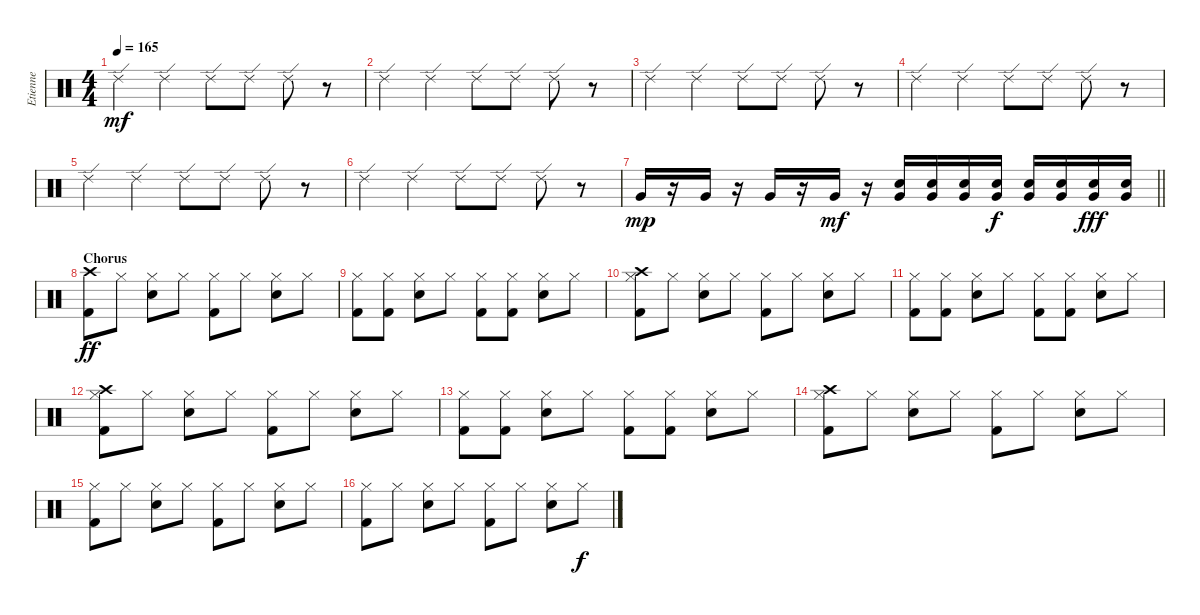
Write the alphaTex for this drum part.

\track ("Etienne" "Etienne") {instrument percussion}
\staff {score}
\articulation defaults
\ts (4 4)
\tempo 165
\clef neutral
\ks c "Ride (edge) 2".4{dy mf} "Ride (edge) 2".4 "Ride (edge) 2".8 "Ride (edge) 2".8 "Ride (edge) 2".8
r.8 |
"Ride (edge) 2".4 "Ride (edge) 2".4 "Ride (edge) 2".8 "Ride (edge) 2".8 "Ride (edge) 2".8 r.8 |
"Ride (edge) 2".4 "Ride (edge) 2".4 "Ride (edge) 2".8 "Ride (edge) 2".8 "Ride (edge) 2".8 r.8 |
"Ride (edge) 2".4 "Ride (edge) 2".4 "Ride (edge) 2".8 "Ride (edge) 2".8 "Ride (edge) 2".8 r.8 |
"Ride (edge) 2".4 "Ride (edge) 2".4 "Ride (edge) 2".8 "Ride (edge) 2".8 "Ride (edge) 2".8 r.8 |
"Ride (edge) 2".4 "Ride (edge) 2".4 "Ride (edge) 2".8 "Ride (edge) 2".8 "Ride (edge) 2".8 r.8 |
\barLineRight lightlight "Very Low Tom (hit)".16{dy mp}
r.16 "Very Low Tom (hit)".16 r.16 "Very Low Tom (hit)".16 r.16 "Very Low Tom (hit)".16{dy mf} r.16 ("Very Low Tom (hit)" "Electric Snare (hit)").16 ("Very Low Tom (hit)" "Electric Snare (hit)").16 ("Very Low Tom (hit)" "Electric Snare (hit)").16 ("Very Low Tom (hit)" "Electric Snare (hit)").16{dy f} ("Very Low Tom (hit)" "Electric Snare (hit)").16 ("Very Low Tom (hit)" "Electric Snare (hit)").16 ("Very Low Tom (hit)" "Electric Snare (hit)").16{dy fff} ("Very Low Tom (hit)" "Electric Snare (hit)").16 |
\section ("" "Chorus")
("Crash high (hit)" "Kick (hit) 2").8{dy ff} "Hi-Hat (closed)".8 ("Hi-Hat (closed)" "Electric Snare (hit)").8 "Hi-Hat (closed)".8 ("Hi-Hat (closed)" "Kick (hit) 2").8 "Hi-Hat (closed)".8 ("Hi-Hat (closed)" "Electric Snare (hit)").8 "Hi-Hat (closed)".8 |
("Hi-Hat (closed)" "Kick (hit) 2").8 ("Hi-Hat (closed)" "Kick (hit) 2").8 ("Hi-Hat (closed)" "Electric Snare (hit)").8 "Hi-Hat (closed)".8 ("Hi-Hat (closed)" "Kick (hit) 2").8 ("Hi-Hat (closed)" "Kick (hit) 2").8 ("Hi-Hat (closed)" "Electric Snare (hit)").8 "Hi-Hat (closed)".8 |
("Crash high (hit)" "Hi-Hat (closed)" "Kick (hit) 2").8 "Hi-Hat (closed)".8 ("Hi-Hat (closed)" "Electric Snare (hit)").8 "Hi-Hat (closed)".8 ("Hi-Hat (closed)" "Kick (hit) 2").8 "Hi-Hat (closed)".8 ("Hi-Hat (closed)" "Electric Snare (hit)").8 "Hi-Hat (closed)".8 |
("Hi-Hat (closed)" "Kick (hit) 2").8 ("Hi-Hat (closed)" "Kick (hit) 2").8 ("Hi-Hat (closed)" "Electric Snare (hit)").8 "Hi-Hat (closed)".8 ("Hi-Hat (closed)" "Kick (hit) 2").8 ("Hi-Hat (closed)" "Kick (hit) 2").8 ("Hi-Hat (closed)" "Electric Snare (hit)").8 "Hi-Hat (closed)".8 |
("Crash high (hit)" "Hi-Hat (closed)" "Kick (hit) 2").8 "Hi-Hat (closed)".8 ("Hi-Hat (closed)" "Electric Snare (hit)").8 "Hi-Hat (closed)".8 ("Hi-Hat (closed)" "Kick (hit) 2").8 "Hi-Hat (closed)".8 ("Hi-Hat (closed)" "Electric Snare (hit)").8 "Hi-Hat (closed)".8 |
("Hi-Hat (closed)" "Kick (hit) 2").8 ("Hi-Hat (closed)" "Kick (hit) 2").8 ("Hi-Hat (closed)" "Electric Snare (hit)").8 "Hi-Hat (closed)".8 ("Hi-Hat (closed)" "Kick (hit) 2").8 ("Hi-Hat (closed)" "Kick (hit) 2").8 ("Hi-Hat (closed)" "Electric Snare (hit)").8 "Hi-Hat (closed)".8 |
("Crash high (hit)" "Hi-Hat (closed)" "Kick (hit) 2").8 "Hi-Hat (closed)".8 ("Hi-Hat (closed)" "Electric Snare (hit)").8 "Hi-Hat (closed)".8 ("Hi-Hat (closed)" "Kick (hit) 2").8 "Hi-Hat (closed)".8 ("Hi-Hat (closed)" "Electric Snare (hit)").8 "Hi-Hat (closed)".8 |
("Hi-Hat (closed)" "Kick (hit) 2").8 "Hi-Hat (closed)".8 ("Hi-Hat (closed)" "Electric Snare (hit)").8 "Hi-Hat (closed)".8 ("Hi-Hat (closed)" "Kick (hit) 2").8 "Hi-Hat (closed)".8 ("Hi-Hat (closed)" "Electric Snare (hit)").8 "Hi-Hat (closed)".8 |
("Hi-Hat (closed)" "Kick (hit) 2").8 "Hi-Hat (closed)".8 ("Hi-Hat (closed)" "Electric Snare (hit)").8 "Hi-Hat (closed)".8 ("Hi-Hat (closed)" "Kick (hit) 2").8 "Hi-Hat (closed)".8 ("Hi-Hat (closed)" "Electric Snare (hit)").8 "Hi-Hat (closed)".8{dy f}
